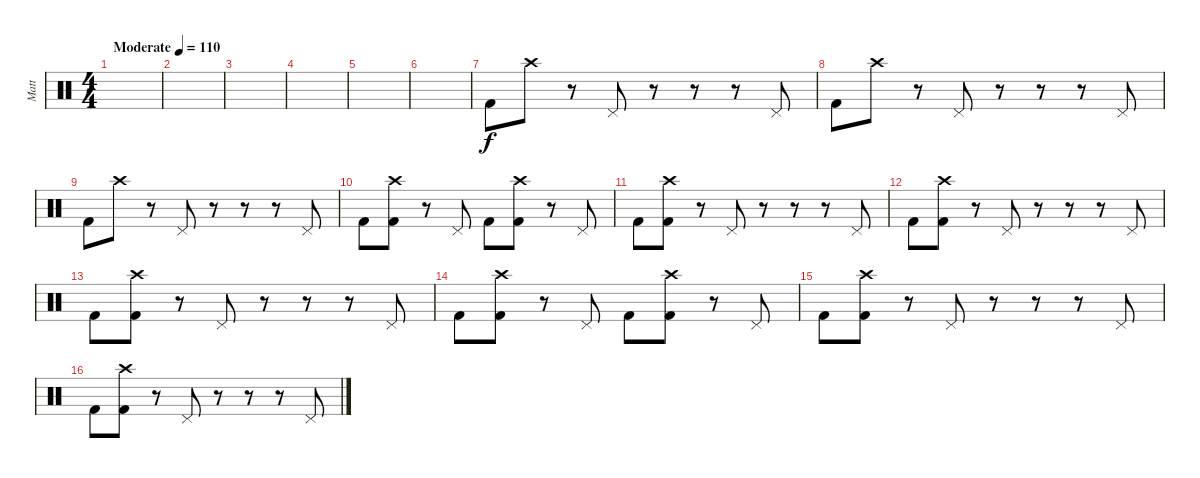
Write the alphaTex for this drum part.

\track ("Matt" "Matt") {instrument percussion}
\staff {score}
\articulation defaults
\ts (4 4)
\tempo (110 "Moderate")
\clef neutral
\ks c
|
|
|
|
|
|
"Kick (hit) 2".8 "Crash high (hit)".8 r.8 "Pedal Hi-Hat (hit)".8 r.8 r.8 r.8 "Pedal Hi-Hat (hit)".8 |
"Kick (hit) 2".8 "Crash high (hit)".8 r.8 "Pedal Hi-Hat (hit)".8 r.8 r.8 r.8 "Pedal Hi-Hat (hit)".8 |
"Kick (hit) 2".8 "Crash high (hit)".8 r.8 "Pedal Hi-Hat (hit)".8 r.8 r.8 r.8 "Pedal Hi-Hat (hit)".8 |
"Kick (hit) 2".8 ("Crash high (hit)" "Kick (hit) 2").8 r.8 "Pedal Hi-Hat (hit)".8 "Kick (hit) 2".8 ("Crash high (hit)" "Kick (hit) 2").8 r.8 "Pedal Hi-Hat (hit)".8 |
"Kick (hit) 2".8 ("Crash high (hit)" "Kick (hit) 2").8 r.8 "Pedal Hi-Hat (hit)".8 r.8 r.8 r.8 "Pedal Hi-Hat (hit)".8 |
"Kick (hit) 2".8 ("Crash high (hit)" "Kick (hit) 2").8 r.8 "Pedal Hi-Hat (hit)".8 r.8 r.8 r.8 "Pedal Hi-Hat (hit)".8 |
"Kick (hit) 2".8 ("Crash high (hit)" "Kick (hit) 2").8 r.8 "Pedal Hi-Hat (hit)".8 r.8 r.8 r.8 "Pedal Hi-Hat (hit)".8 |
"Kick (hit) 2".8 ("Crash high (hit)" "Kick (hit) 2").8 r.8 "Pedal Hi-Hat (hit)".8 "Kick (hit) 2".8 ("Crash high (hit)" "Kick (hit) 2").8 r.8 "Pedal Hi-Hat (hit)".8 |
"Kick (hit) 2".8 ("Crash high (hit)" "Kick (hit) 2").8 r.8 "Pedal Hi-Hat (hit)".8 r.8 r.8 r.8 "Pedal Hi-Hat (hit)".8 |
"Kick (hit) 2".8 ("Crash high (hit)" "Kick (hit) 2").8 r.8 "Pedal Hi-Hat (hit)".8 r.8 r.8 r.8 "Pedal Hi-Hat (hit)".8
